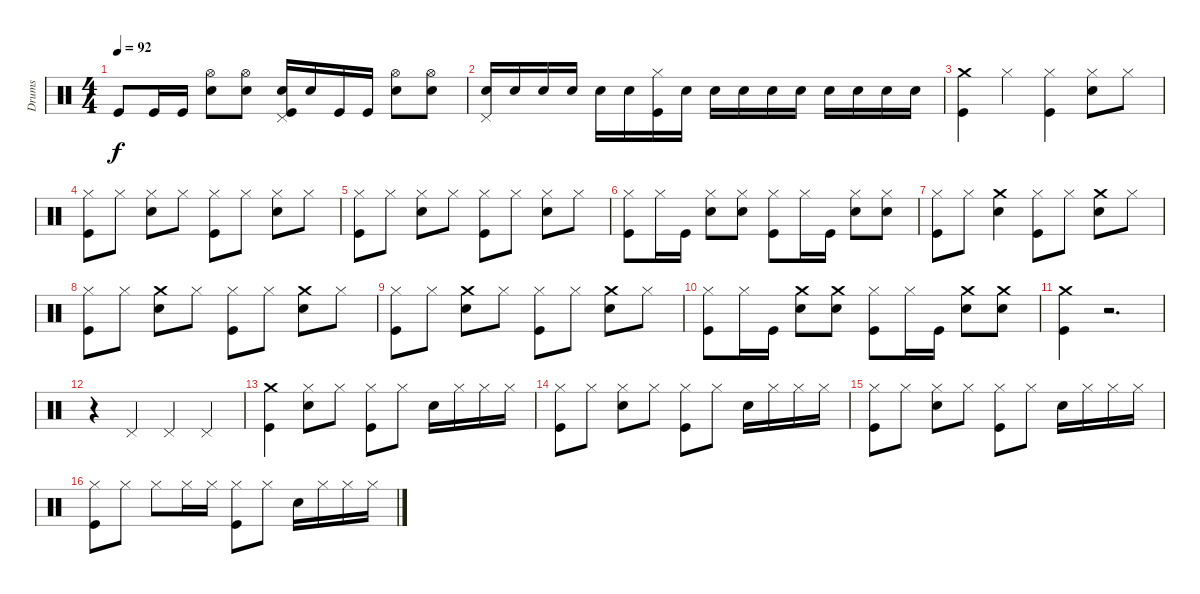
\track ("Drums" "Drums") {instrument percussion}
\staff {score}
\articulation defaults
\ts (4 4)
\tempo 92
\clef neutral
\ks c "Kick (hit)".8{dy f} "Kick (hit)".16 "Kick (hit)".16
("Electric Snare (hit)" "Hi-Hat (open)").8 ("Electric Snare (hit)" "Hi-Hat (open)").8 ("Kick (hit)" "Electric Snare (hit)" "Pedal Hi-Hat (hit)").16 "Electric Snare (hit)".16 "Kick (hit)".16 "Kick (hit)".16 ("Electric Snare (hit)" "Hi-Hat (open)").8 ("Electric Snare (hit)" "Hi-Hat (open)").8 |
("Electric Snare (hit)" "Pedal Hi-Hat (hit)").16 "Electric Snare (hit)".16 "Electric Snare (hit)".16 "Electric Snare (hit)".16 "Electric Snare (hit)".16 "Electric Snare (hit)".16 ("Kick (hit)" "Hi-Hat (closed)").16 "Electric Snare (hit)".16 "Electric Snare (hit)".16 "Electric Snare (hit)".16 "Electric Snare (hit)".16 "Electric Snare (hit)".16 "Electric Snare (hit)".16 "Electric Snare (hit)".16 "Electric Snare (hit)".16 "Electric Snare (hit)".16 |
("Kick (hit)" "Crash medium (hit)").4 "Hi-Hat (closed)".4 ("Kick (hit)" "Hi-Hat (closed)").4 ("Electric Snare (hit)" "Hi-Hat (closed)").8 "Hi-Hat (closed)".8 |
("Kick (hit)" "Hi-Hat (closed)").8 "Hi-Hat (closed)".8 ("Electric Snare (hit)" "Hi-Hat (closed)").8 "Hi-Hat (closed)".8 ("Kick (hit)" "Hi-Hat (closed)").8 "Hi-Hat (closed)".8 ("Electric Snare (hit)" "Hi-Hat (closed)").8 "Hi-Hat (closed)".8 |
("Kick (hit)" "Hi-Hat (closed)").8 "Hi-Hat (closed)".8 ("Electric Snare (hit)" "Hi-Hat (closed)").8 "Hi-Hat (closed)".8 ("Kick (hit)" "Hi-Hat (closed)").8 "Hi-Hat (closed)".8 ("Electric Snare (hit)" "Hi-Hat (closed)").8 "Hi-Hat (closed)".8 |
("Kick (hit)" "Hi-Hat (closed)").8 "Hi-Hat (closed)".16 "Kick (hit)".16 ("Electric Snare (hit)" "Hi-Hat (closed)").8 ("Electric Snare (hit)" "Hi-Hat (closed)").8 ("Kick (hit)" "Hi-Hat (closed)").8 "Hi-Hat (closed)".16 "Kick (hit)".16 ("Electric Snare (hit)" "Hi-Hat (closed)").8 ("Electric Snare (hit)" "Hi-Hat (closed)").8 |
("Kick (hit)" "Hi-Hat (closed)").8 "Hi-Hat (closed)".8 ("Electric Snare (hit)" "Crash medium (hit)").4 ("Kick (hit)" "Hi-Hat (closed)").8 "Hi-Hat (closed)".8 ("Electric Snare (hit)" "Crash medium (hit)").8 "Hi-Hat (closed)".8 |
("Kick (hit)" "Hi-Hat (closed)").8 "Hi-Hat (closed)".8 ("Electric Snare (hit)" "Crash medium (hit)").8 "Hi-Hat (closed)".8 ("Kick (hit)" "Hi-Hat (closed)").8 "Hi-Hat (closed)".8 ("Electric Snare (hit)" "Crash medium (hit)").8 "Hi-Hat (closed)".8 |
("Kick (hit)" "Hi-Hat (closed)").8 "Hi-Hat (closed)".8 ("Electric Snare (hit)" "Crash medium (hit)").8 "Hi-Hat (closed)".8 ("Kick (hit)" "Hi-Hat (closed)").8 "Hi-Hat (closed)".8 ("Electric Snare (hit)" "Crash medium (hit)").8 "Hi-Hat (closed)".8 |
("Kick (hit)" "Hi-Hat (closed)").8 "Hi-Hat (closed)".16 "Kick (hit)".16 ("Electric Snare (hit)" "Crash medium (hit)").8 ("Electric Snare (hit)" "Crash medium (hit)").8 ("Kick (hit)" "Hi-Hat (closed)").8 "Hi-Hat (closed)".16 "Kick (hit)".16 ("Electric Snare (hit)" "Crash medium (hit)").8 ("Electric Snare (hit)" "Crash medium (hit)").8 |
("Kick (hit)" "Crash medium (hit)").4 r.2{d} |
r.4 "Pedal Hi-Hat (hit)".4 "Pedal Hi-Hat (hit)".4 "Pedal Hi-Hat (hit)".4 |
("Kick (hit)" "Crash medium (hit)").4 ("Electric Snare (hit)" "Hi-Hat (closed)").8 "Hi-Hat (closed)".8 ("Kick (hit)" "Hi-Hat (closed)").8 "Hi-Hat (closed)".8 "Electric Snare (hit)".16 "Hi-Hat (closed)".16 "Hi-Hat (closed)".16 "Hi-Hat (closed)".16 |
("Kick (hit)" "Hi-Hat (closed)").8 "Hi-Hat (closed)".8 ("Electric Snare (hit)" "Hi-Hat (closed)").8 "Hi-Hat (closed)".8 ("Kick (hit)" "Hi-Hat (closed)").8 "Hi-Hat (closed)".8 "Electric Snare (hit)".16 "Hi-Hat (closed)".16 "Hi-Hat (closed)".16 "Hi-Hat (closed)".16 |
("Kick (hit)" "Hi-Hat (closed)").8 "Hi-Hat (closed)".8 ("Electric Snare (hit)" "Hi-Hat (closed)").8 "Hi-Hat (closed)".8 ("Kick (hit)" "Hi-Hat (closed)").8 "Hi-Hat (closed)".8 "Electric Snare (hit)".16 "Hi-Hat (closed)".16 "Hi-Hat (closed)".16 "Hi-Hat (closed)".16 |
("Kick (hit)" "Hi-Hat (closed)").8 "Hi-Hat (closed)".8 "Hi-Hat (closed)".8 "Hi-Hat (closed)".16 "Hi-Hat (closed)".16 ("Kick (hit)" "Hi-Hat (closed)").8 "Hi-Hat (closed)".8 "Electric Snare (hit)".16 "Hi-Hat (closed)".16 "Hi-Hat (closed)".16 "Hi-Hat (closed)".16
